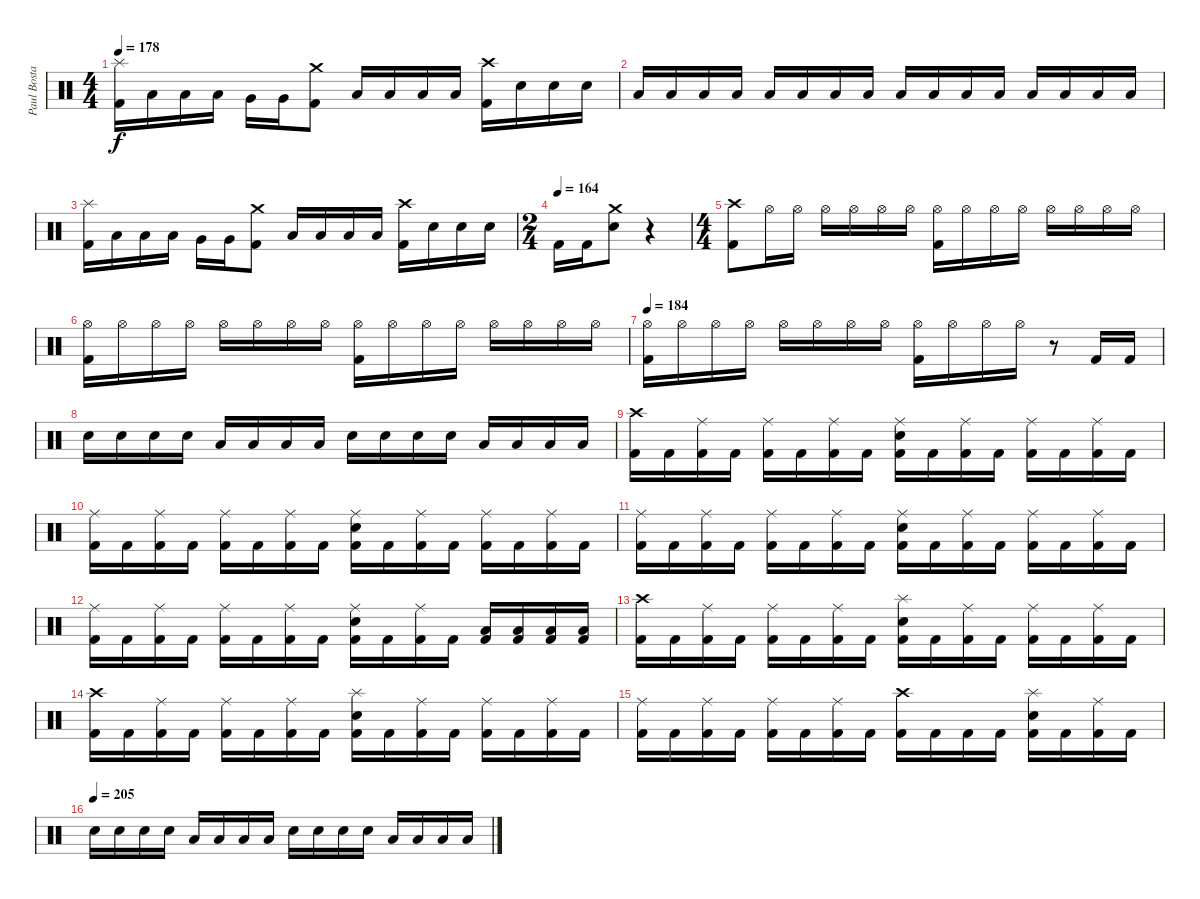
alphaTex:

\track ("Paul Bostaph" "Paul Bosta") {instrument percussion}
\staff {score}
\articulation defaults
\ts (4 4)
\tempo 178
\clef neutral
\ks c
("Splash (hit)" "Kick (hit) 2").16{dy f} "Low Tom (hit)".16 "Low Tom (hit)".16 "Low Tom (hit)".16 "Very Low Tom (hit)".16 "Very Low Tom (hit)".16 ("Crash medium (hit)" "Kick (hit) 2").8 "Low Tom (hit)".16 "Low Tom (hit)".16 "Low Tom (hit)".16 "Low Tom (hit)".16 ("Crash high (hit)" "Kick (hit) 2").16 "Electric Snare (hit)".16 "Electric Snare (hit)".16 "Electric Snare (hit)".16 |
"Low Floor Tom (hit)".16 "Low Floor Tom (hit)".16 "Low Floor Tom (hit)".16 "Low Floor Tom (hit)".16 "Low Floor Tom (hit)".16 "Low Floor Tom (hit)".16 "Low Floor Tom (hit)".16 "Low Floor Tom (hit)".16 "Low Floor Tom (hit)".16 "Low Floor Tom (hit)".16 "Low Floor Tom (hit)".16 "Low Floor Tom (hit)".16 "Low Floor Tom (hit)".16 "Low Floor Tom (hit)".16 "Low Floor Tom (hit)".16 "Low Floor Tom (hit)".16 |
("Splash (hit)" "Kick (hit) 2").16 "Low Tom (hit)".16 "Low Tom (hit)".16 "Low Tom (hit)".16 "Very Low Tom (hit)".16 "Very Low Tom (hit)".16 ("Crash medium (hit)" "Kick (hit) 2").8 "Low Tom (hit)".16 "Low Tom (hit)".16 "Low Tom (hit)".16 "Low Tom (hit)".16 ("Crash high (hit)" "Kick (hit) 2").16 "Electric Snare (hit)".16 "Electric Snare (hit)".16 "Electric Snare (hit)".16 |
\ts (2 4)
\tempo (164)
"Kick (hit) 2".16 "Kick (hit) 2".16 ("Crash medium (hit)" "Electric Snare (hit)").8 r.4 |
\ts (4 4)
("Crash high (hit)" "Kick (hit) 2").8 "Hi-Hat (open)".16 "Hi-Hat (open)".16 "Hi-Hat (open)".16 "Hi-Hat (open)".16 "Hi-Hat (open)".16 "Hi-Hat (open)".16 ("Kick (hit) 2" "Hi-Hat (open)").16 "Hi-Hat (open)".16 "Hi-Hat (open)".16 "Hi-Hat (open)".16 "Hi-Hat (open)".16 "Hi-Hat (open)".16 "Hi-Hat (open)".16 "Hi-Hat (open)".16 |
("Kick (hit) 2" "Hi-Hat (open)").16 "Hi-Hat (open)".16 "Hi-Hat (open)".16 "Hi-Hat (open)".16 "Hi-Hat (open)".16 "Hi-Hat (open)".16 "Hi-Hat (open)".16 "Hi-Hat (open)".16 ("Kick (hit) 2" "Hi-Hat (open)").16 "Hi-Hat (open)".16 "Hi-Hat (open)".16 "Hi-Hat (open)".16 "Hi-Hat (open)".16 "Hi-Hat (open)".16 "Hi-Hat (open)".16 "Hi-Hat (open)".16 |
\tempo 184
("Kick (hit) 2" "Hi-Hat (open)").16 "Hi-Hat (open)".16 "Hi-Hat (open)".16 "Hi-Hat (open)".16 "Hi-Hat (open)".16 "Hi-Hat (open)".16 "Hi-Hat (open)".16 "Hi-Hat (open)".16 ("Kick (hit) 2" "Hi-Hat (open)").16 "Hi-Hat (open)".16 "Hi-Hat (open)".16 "Hi-Hat (open)".16 r.8 "Kick (hit) 2".16 "Kick (hit) 2".16 |
"Electric Snare (hit)".16 "Electric Snare (hit)".16 "Electric Snare (hit)".16 "Electric Snare (hit)".16 "Low Tom (hit)".16 "Low Tom (hit)".16 "Low Tom (hit)".16 "Low Tom (hit)".16 "Electric Snare (hit)".16 "Electric Snare (hit)".16 "Electric Snare (hit)".16 "Electric Snare (hit)".16 "Low Tom (hit)".16 "Low Tom (hit)".16 "Low Tom (hit)".16 "Low Tom (hit)".16 |
("Crash high (hit)" "Kick (hit) 2").16 "Kick (hit) 2".16 ("Ride (middle)" "Kick (hit) 2").16 "Kick (hit) 2".16 ("Ride (middle)" "Kick (hit) 2").16 "Kick (hit) 2".16 ("Ride (middle)" "Kick (hit) 2").16 "Kick (hit) 2".16 ("Electric Snare (hit)" "Ride (middle)" "Kick (hit) 2").16 "Kick (hit) 2".16 ("Ride (middle)" "Kick (hit) 2").16 "Kick (hit) 2".16 ("Ride (middle)" "Kick (hit) 2").16 "Kick (hit) 2".16 ("Ride (middle)" "Kick (hit) 2").16 "Kick (hit) 2".16 |
("Ride (middle)" "Kick (hit) 2").16 "Kick (hit) 2".16 ("Ride (middle)" "Kick (hit) 2").16 "Kick (hit) 2".16 ("Ride (middle)" "Kick (hit) 2").16 "Kick (hit) 2".16 ("Ride (middle)" "Kick (hit) 2").16 "Kick (hit) 2".16 ("Electric Snare (hit)" "Ride (middle)" "Kick (hit) 2").16 "Kick (hit) 2".16 ("Ride (middle)" "Kick (hit) 2").16 "Kick (hit) 2".16 ("Ride (middle)" "Kick (hit) 2").16 "Kick (hit) 2".16 ("Ride (middle)" "Kick (hit) 2").16 "Kick (hit) 2".16 |
("Ride (middle)" "Kick (hit) 2").16 "Kick (hit) 2".16 ("Ride (middle)" "Kick (hit) 2").16 "Kick (hit) 2".16 ("Ride (middle)" "Kick (hit) 2").16 "Kick (hit) 2".16 ("Ride (middle)" "Kick (hit) 2").16 "Kick (hit) 2".16 ("Electric Snare (hit)" "Ride (middle)" "Kick (hit) 2").16 "Kick (hit) 2".16 ("Ride (middle)" "Kick (hit) 2").16 "Kick (hit) 2".16 ("Ride (middle)" "Kick (hit) 2").16 "Kick (hit) 2".16 ("Ride (middle)" "Kick (hit) 2").16 "Kick (hit) 2".16 |
("Ride (middle)" "Kick (hit) 2").16 "Kick (hit) 2".16 ("Ride (middle)" "Kick (hit) 2").16 "Kick (hit) 2".16 ("Ride (middle)" "Kick (hit) 2").16 "Kick (hit) 2".16 ("Ride (middle)" "Kick (hit) 2").16 "Kick (hit) 2".16 ("Electric Snare (hit)" "Ride (middle)" "Kick (hit) 2").16 "Kick (hit) 2".16 ("Ride (middle)" "Kick (hit) 2").16 "Kick (hit) 2".16 ("Low Tom (hit)" "Kick (hit) 2").16 ("Low Tom (hit)" "Kick (hit) 2").16 ("Low Tom (hit)" "Kick (hit) 2").16 ("Low Tom (hit)" "Kick (hit) 2").16 |
("Crash high (hit)" "Kick (hit) 2").16 "Kick (hit) 2".16 ("Ride (middle)" "Kick (hit) 2").16 "Kick (hit) 2".16 ("Ride (middle)" "Kick (hit) 2").16 "Kick (hit) 2".16 ("Ride (middle)" "Kick (hit) 2").16 "Kick (hit) 2".16 ("Electric Snare (hit)" "Splash (hit)" "Kick (hit) 2").16 "Kick (hit) 2".16 ("Ride (middle)" "Kick (hit) 2").16 "Kick (hit) 2".16 ("Ride (middle)" "Kick (hit) 2").16 "Kick (hit) 2".16 ("Ride (middle)" "Kick (hit) 2").16 "Kick (hit) 2".16 |
("Crash high (hit)" "Kick (hit) 2").16 "Kick (hit) 2".16 ("Ride (middle)" "Kick (hit) 2").16 "Kick (hit) 2".16 ("Ride (middle)" "Kick (hit) 2").16 "Kick (hit) 2".16 ("Ride (middle)" "Kick (hit) 2").16 "Kick (hit) 2".16 ("Electric Snare (hit)" "Splash (hit)" "Kick (hit) 2").16 "Kick (hit) 2".16 ("Ride (middle)" "Kick (hit) 2").16 "Kick (hit) 2".16 ("Ride (middle)" "Kick (hit) 2").16 "Kick (hit) 2".16 ("Ride (middle)" "Kick (hit) 2").16 "Kick (hit) 2".16 |
("Ride (middle)" "Kick (hit) 2").16 "Kick (hit) 2".16 ("Ride (middle)" "Kick (hit) 2").16 "Kick (hit) 2".16 ("Ride (middle)" "Kick (hit) 2").16 "Kick (hit) 2".16 ("Ride (middle)" "Kick (hit) 2").16 "Kick (hit) 2".16 ("Crash high (hit)" "Kick (hit) 2").16 "Kick (hit) 2".16 "Kick (hit) 2".16 "Kick (hit) 2".16 ("Splash (hit)" "Electric Snare (hit)" "Kick (hit) 2").16 "Kick (hit) 2".16 ("Ride (middle)" "Kick (hit) 2").16 "Kick (hit) 2".16 |
\tempo (205)
"Electric Snare (hit)".16 "Electric Snare (hit)".16 "Electric Snare (hit)".16 "Electric Snare (hit)".16 "Low Tom (hit)".16 "Low Tom (hit)".16 "Low Tom (hit)".16 "Low Tom (hit)".16 "Electric Snare (hit)".16 "Electric Snare (hit)".16 "Electric Snare (hit)".16 "Electric Snare (hit)".16 "Low Tom (hit)".16 "Low Tom (hit)".16 "Low Tom (hit)".16 "Low Tom (hit)".16
